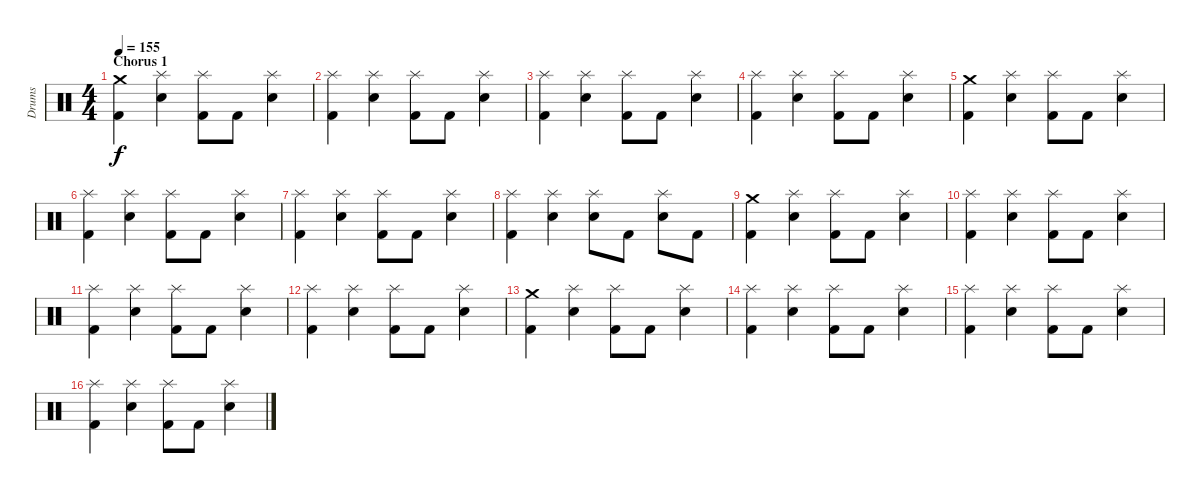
\track ("Drums" "Drums") {instrument percussion}
\staff {score}
\articulation defaults
\ts (4 4)
\section ("" "Chorus 1")
\tempo 155
\clef neutral
\ks c
("Kick (hit) 2" "Crash medium (hit)").4{dy f} ("Splash (hit)" "Electric Snare (hit)").4 ("Kick (hit) 2" "Splash (hit)").8 "Kick (hit) 2".8 ("Splash (hit)" "Electric Snare (hit)").4 |
("Kick (hit) 2" "Splash (hit)").4 ("Splash (hit)" "Electric Snare (hit)").4 ("Kick (hit) 2" "Splash (hit)").8 "Kick (hit) 2".8 ("Splash (hit)" "Electric Snare (hit)").4 |
("Kick (hit) 2" "Splash (hit)").4 ("Electric Snare (hit)" "Splash (hit)").4 ("Kick (hit) 2" "Splash (hit)").8 "Kick (hit) 2".8 ("Electric Snare (hit)" "Splash (hit)").4 |
("Kick (hit) 2" "Splash (hit)").4 ("Electric Snare (hit)" "Splash (hit)").4 ("Kick (hit) 2" "Splash (hit)").8 "Kick (hit) 2".8 ("Electric Snare (hit)" "Splash (hit)").4 |
("Kick (hit) 2" "Crash medium (hit)").4 ("Splash (hit)" "Electric Snare (hit)").4 ("Kick (hit) 2" "Splash (hit)").8 "Kick (hit) 2".8 ("Splash (hit)" "Electric Snare (hit)").4 |
("Kick (hit) 2" "Splash (hit)").4 ("Splash (hit)" "Electric Snare (hit)").4 ("Kick (hit) 2" "Splash (hit)").8 "Kick (hit) 2".8 ("Splash (hit)" "Electric Snare (hit)").4 |
("Kick (hit) 2" "Splash (hit)").4 ("Electric Snare (hit)" "Splash (hit)").4 ("Kick (hit) 2" "Splash (hit)").8 "Kick (hit) 2".8 ("Electric Snare (hit)" "Splash (hit)").4 |
("Kick (hit) 2" "Splash (hit)").4 ("Electric Snare (hit)" "Splash (hit)").4 ("Snare (hit) 2" "Splash (hit)").8 "Kick (hit) 2".8 ("Electric Snare (hit)" "Splash (hit)").8 "Kick (hit) 2".8 |
("Kick (hit) 2" "Crash medium (hit)").4 ("Splash (hit)" "Electric Snare (hit)").4 ("Kick (hit) 2" "Splash (hit)").8 "Kick (hit) 2".8 ("Splash (hit)" "Electric Snare (hit)").4 |
("Kick (hit) 2" "Splash (hit)").4 ("Splash (hit)" "Electric Snare (hit)").4 ("Kick (hit) 2" "Splash (hit)").8 "Kick (hit) 2".8 ("Splash (hit)" "Electric Snare (hit)").4 |
("Kick (hit) 2" "Splash (hit)").4 ("Electric Snare (hit)" "Splash (hit)").4 ("Kick (hit) 2" "Splash (hit)").8 "Kick (hit) 2".8 ("Electric Snare (hit)" "Splash (hit)").4 |
("Kick (hit) 2" "Splash (hit)").4 ("Electric Snare (hit)" "Splash (hit)").4 ("Kick (hit) 2" "Splash (hit)").8 "Kick (hit) 2".8 ("Electric Snare (hit)" "Splash (hit)").4 |
("Kick (hit) 2" "Crash medium (hit)").4 ("Splash (hit)" "Electric Snare (hit)").4 ("Kick (hit) 2" "Splash (hit)").8 "Kick (hit) 2".8 ("Splash (hit)" "Electric Snare (hit)").4 |
("Kick (hit) 2" "Splash (hit)").4 ("Splash (hit)" "Electric Snare (hit)").4 ("Kick (hit) 2" "Splash (hit)").8 "Kick (hit) 2".8 ("Splash (hit)" "Electric Snare (hit)").4 |
("Kick (hit) 2" "Splash (hit)").4 ("Electric Snare (hit)" "Splash (hit)").4 ("Kick (hit) 2" "Splash (hit)").8 "Kick (hit) 2".8 ("Electric Snare (hit)" "Splash (hit)").4 |
("Kick (hit) 2" "Splash (hit)").4 ("Electric Snare (hit)" "Splash (hit)").4 ("Kick (hit) 2" "Splash (hit)").8 "Kick (hit) 2".8 ("Electric Snare (hit)" "Splash (hit)").4
